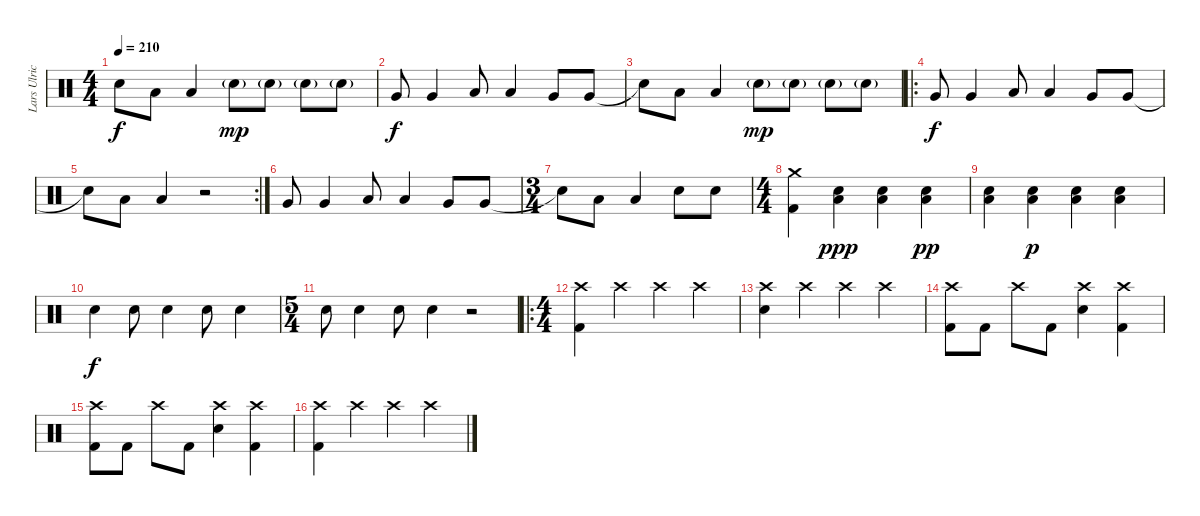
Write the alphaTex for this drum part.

\track ("Lars Ulrich" "Lars Ulric") {instrument percussion}
\staff {score}
\articulation defaults
\ts (4 4)
\tempo 210
\clef neutral
\ks c "Snare (hit)"{t}.8{dy f} "Low Floor Tom (hit)".8 "Low Floor Tom (hit)".4 "Electric Snare (hit)"{g}.8{dy mp} "Electric Snare (hit)"{g}.8 "Electric Snare (hit)"{g}.8 "Electric Snare (hit)"{g}.8
|
"Very Low Tom (hit)".8{dy f} "Very Low Tom (hit)".4 "Low Tom (hit)".8 "Low Tom (hit)".4 "Very Low Tom (hit)".8 "Very Low Tom (hit)".8 |
"Snare (hit)"{t}.8 "Low Floor Tom (hit)".8 "Low Floor Tom (hit)".4 "Electric Snare (hit)"{g}.8{dy mp} "Electric Snare (hit)"{g}.8 "Electric Snare (hit)"{g}.8 "Electric Snare (hit)"{g}.8 |
\ro "Very Low Tom (hit)".8{dy f} "Very Low Tom (hit)".4 "Low Tom (hit)".8 "Low Tom (hit)".4 "Very Low Tom (hit)".8 "Very Low Tom (hit)".8
|
\rc 2 "Snare (hit)"{t}.8 "Low Floor Tom (hit)".8 "Low Floor Tom (hit)".4
r.2 |
"Very Low Tom (hit)".8 "Very Low Tom (hit)".4 "Low Tom (hit)".8 "Low Tom (hit)".4 "Very Low Tom (hit)".8 "Very Low Tom (hit)".8 |
\ts (3 4)
"Snare (hit)"{t}.8 "Low Floor Tom (hit)".8 "Low Floor Tom (hit)".4 "Snare (hit) 2".8 "Snare (hit) 2".8 |
\ts (4 4)
("Crash medium (hit)" "Kick (hit) 2").4 ("Snare (hit) 2" "Low Floor Tom (hit)").4{dy ppp} ("Snare (hit) 2" "Low Floor Tom (hit)").4 ("Snare (hit) 2" "Low Floor Tom (hit)").4{dy pp} |
("Snare (hit) 2" "Low Floor Tom (hit)").4 ("Snare (hit) 2" "Low Floor Tom (hit)").4{dy p} ("Snare (hit) 2" "Low Floor Tom (hit)").4 ("Snare (hit) 2" "Low Floor Tom (hit)").4 |
"Snare (hit) 2".4{dy f} "Snare (hit) 2".8 "Snare (hit) 2".4 "Snare (hit) 2".8 "Snare (hit) 2".4 |
\ts (5 4)
"Snare (hit) 2".8 "Snare (hit) 2".4 "Snare (hit) 2".8 "Snare (hit) 2".4 r.2 |
\ro
\ts (4 4)
("Crash high (hit)" "Kick (hit) 2").4 "Crash high (hit)".4 "Crash high (hit)".4 "Crash high (hit)".4 |
("Crash high (hit)" "Snare (hit) 2").4 "Crash high (hit)".4 "Crash high (hit)".4 "Crash high (hit)".4 |
("Crash high (hit)" "Kick (hit) 2").8 "Kick (hit) 2".8 "Crash high (hit)".8 "Kick (hit) 2".8 ("Crash high (hit)" "Snare (hit) 2").4 ("Crash high (hit)" "Kick (hit) 2").4 |
("Crash high (hit)" "Kick (hit) 2").8 "Kick (hit) 2".8 "Crash high (hit)".8 "Kick (hit) 2".8 ("Crash high (hit)" "Snare (hit) 2").4 ("Crash high (hit)" "Kick (hit) 2").4 |
("Crash high (hit)" "Kick (hit) 2").4 "Crash high (hit)".4 "Crash high (hit)".4 "Crash high (hit)".4
